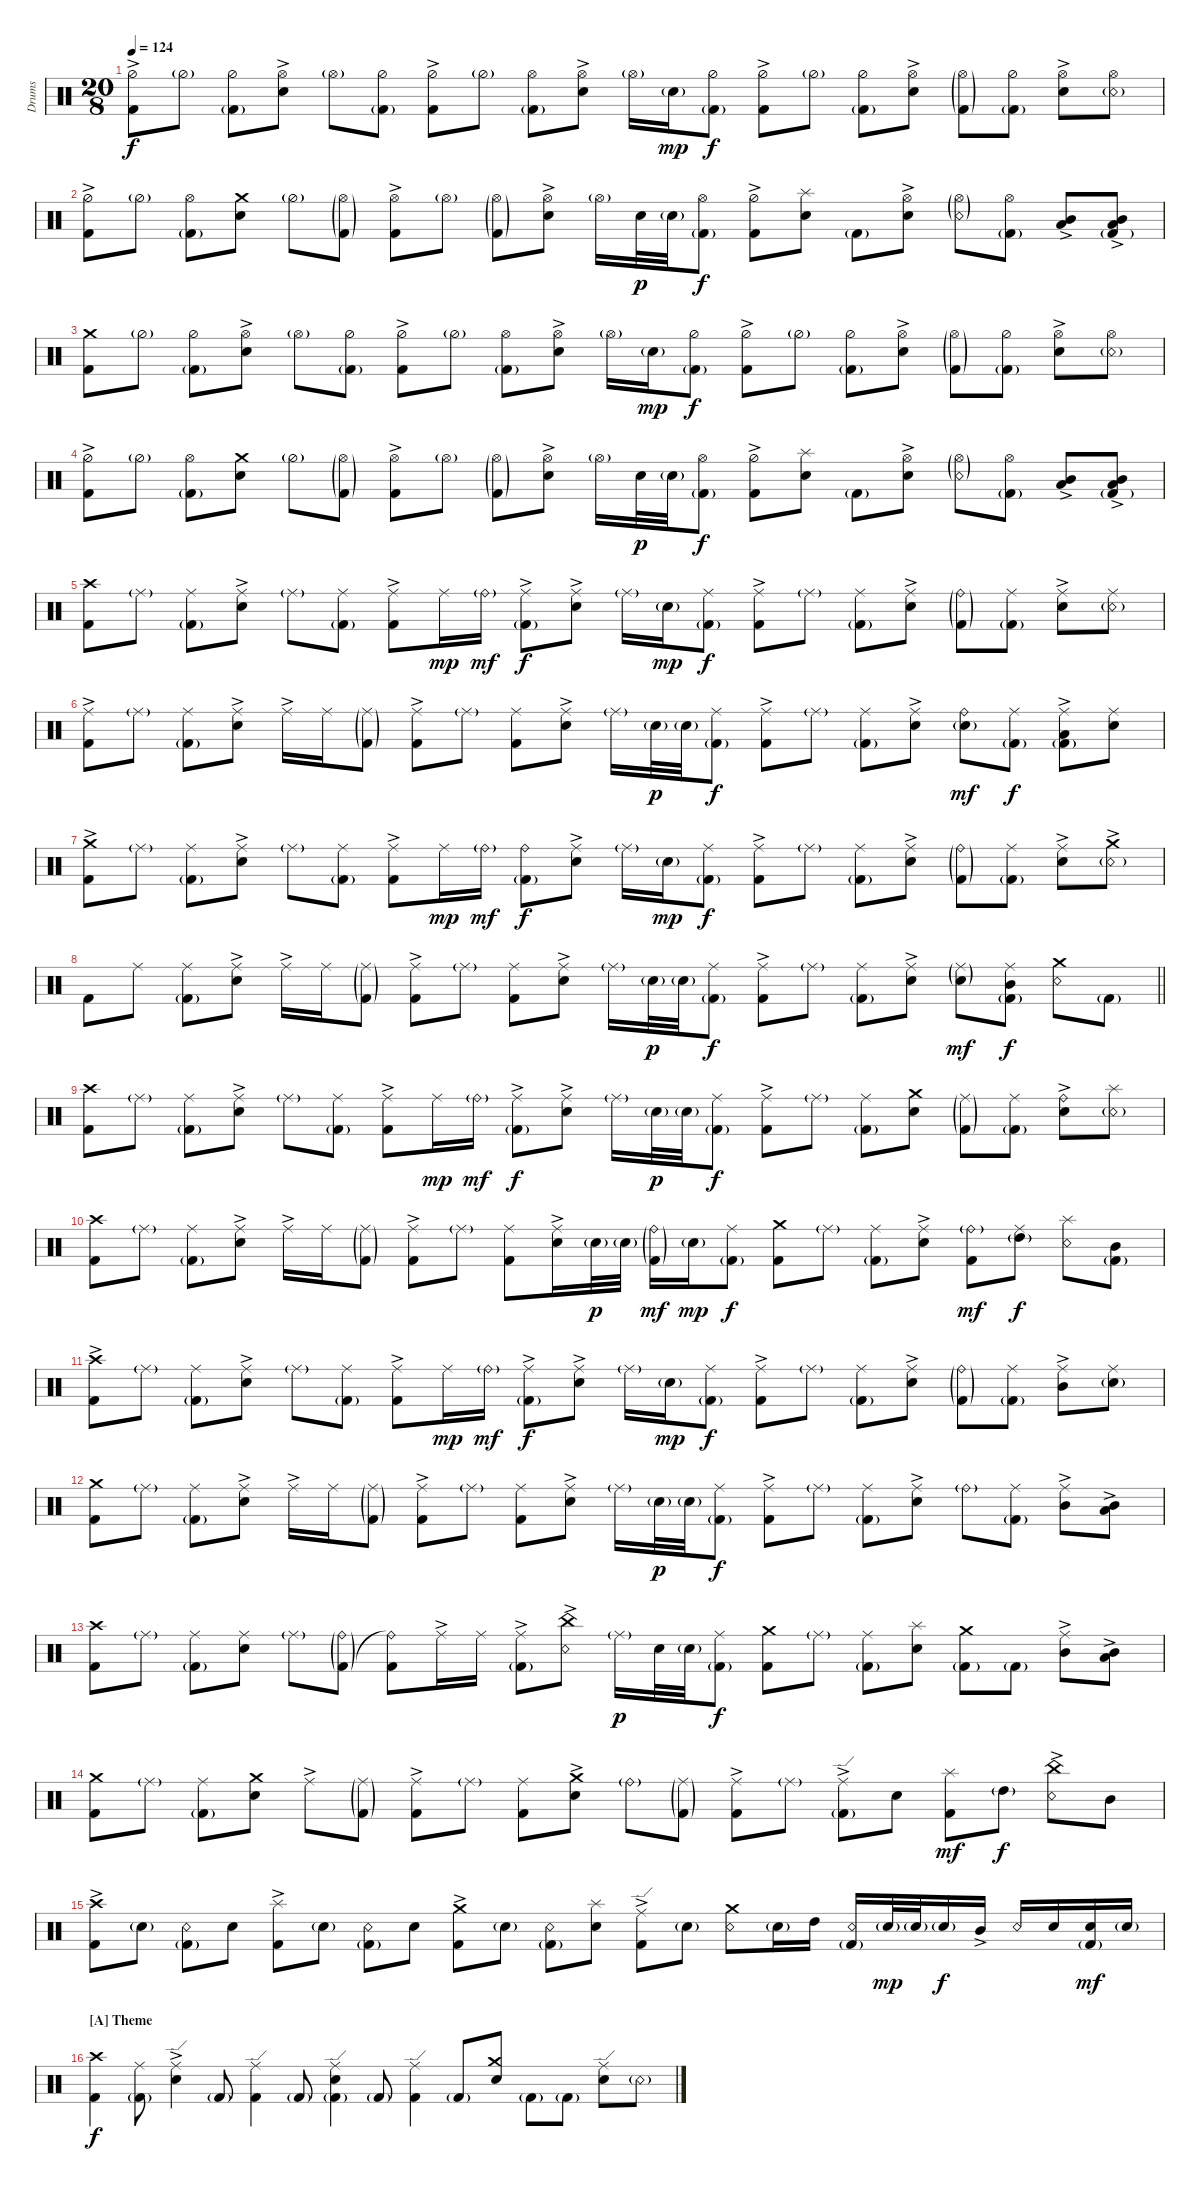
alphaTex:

\bracketExtendMode groupsimilarinstruments
\otherSystemsTrackNameOrientation horizontal
\track ("Drumkit" "Drums") {instrument percussion}
\staff {score}
\articulation defaults
\ts (20 8)
\tempo 124
\clef neutral
\ks c
("Kick (hit) 2" "Hi-Hat (half)"{ac}).8{dy f beam Down} "Hi-Hat (half)"{g}.8{beam Down} ("Kick (hit) 2"{g} "Hi-Hat (half)").8{beam Down} ("Snare (hit) 2" "Hi-Hat (open)"{ac}).8{beam Down} "Hi-Hat (open)"{g}.8{beam Down} ("Kick (hit) 2"{g} "Hi-Hat (half)").8{beam Down} ("Kick (hit) 2" "Hi-Hat (half)"{ac}).8{beam Down} "Hi-Hat (half)"{g}.8{beam Down} ("Kick (hit) 2"{g} "Hi-Hat (open)").8{beam Down} ("Snare (hit) 2" "Hi-Hat (open)"{ac}).8{beam Down} "Hi-Hat (open)"{g}.16{beam Down} "Snare (hit) 2"{g}.16{dy mp beam Down} ("Kick (hit) 2"{g} "Hi-Hat (half)").8{dy f beam Down} ("Kick (hit) 2" "Hi-Hat (half)"{ac}).8{beam Down} "Hi-Hat (half)"{g}.8{beam Down} ("Kick (hit) 2"{g} "Hi-Hat (half)").8{beam Down} ("Snare (hit) 2" "Hi-Hat (open)"{ac}).8{beam Down} ("Kick (hit) 2"{g} "Hi-Hat (open)"{g}).8{beam Down} ("Kick (hit) 2"{g} "Hi-Hat (half)").8{beam Down} ("Snare (hit) 2" "Hi-Hat (open)"{ac}).8{beam Down} ("Snare (rim shot)"{g} "Hi-Hat (open)").8{beam Down} |
("Kick (hit) 2" "Hi-Hat (half)"{ac}).8{beam Down} "Hi-Hat (half)"{g}.8{beam Down} ("Kick (hit) 2"{g} "Hi-Hat (open)").8{beam Down} ("Snare (hit) 2" "Crash medium (hit)").8{beam Down} "Hi-Hat (half)"{g}.8{beam Down} ("Kick (hit) 2"{g} "Hi-Hat (open)"{g}).8{beam Down} ("Kick (hit) 2" "Hi-Hat (open)"{ac}).8{beam Down} "Hi-Hat (open)"{g}.8{beam Down} ("Kick (hit) 2"{g} "Hi-Hat (open)"{g}).8{beam Down} ("Snare (hit) 2" "Hi-Hat (open)"{ac}).8{beam Down} "Hi-Hat (open)"{g}.16{beam Down} "Snare (hit) 2".32{dy p beam Down} "Snare (hit) 2"{g}.32{beam Down} ("Kick (hit) 2"{g} "Hi-Hat (open)").8{dy f beam Down} ("Kick (hit) 2" "Hi-Hat (half)"{ac}).8{beam Down} ("Snare (hit) 2" "Splash (hit)").8{beam Down} "Kick (hit) 2"{g}.8{beam Down} ("Snare (hit) 2" "Hi-Hat (open)"{ac}).8{beam Down} ("Hi-Hat (open)"{g} "Snare (rim shot)"{g}).8{beam Down} ("Kick (hit) 2"{g} "Hi-Hat (open)").8{beam Down} ("Mid Tom (hit)" "Low Tom (hit)"{ac}).8{beam Up} ("Kick (hit) 2"{g} "Mid Tom (hit)" "Low Tom (hit)"{ac}).8{beam Up} |
("Kick (hit) 2" "Crash medium (hit)").8{beam Down} "Hi-Hat (half)"{g}.8{beam Down} ("Kick (hit) 2"{g} "Hi-Hat (half)").8{beam Down} ("Snare (hit) 2" "Hi-Hat (open)"{ac}).8{beam Down} "Hi-Hat (open)"{g}.8{beam Down} ("Kick (hit) 2"{g} "Hi-Hat (half)").8{beam Down} ("Kick (hit) 2" "Hi-Hat (half)"{ac}).8{beam Down} "Hi-Hat (half)"{g}.8{beam Down} ("Kick (hit) 2"{g} "Hi-Hat (open)").8{beam Down} ("Snare (hit) 2" "Hi-Hat (open)"{ac}).8{beam Down} "Hi-Hat (open)"{g}.16{beam Down} "Snare (hit) 2"{g}.16{dy mp beam Down} ("Kick (hit) 2"{g} "Hi-Hat (half)").8{dy f beam Down} ("Kick (hit) 2" "Hi-Hat (half)"{ac}).8{beam Down} "Hi-Hat (half)"{g}.8{beam Down} ("Kick (hit) 2"{g} "Hi-Hat (half)").8{beam Down} ("Snare (hit) 2" "Hi-Hat (open)"{ac}).8{beam Down} ("Kick (hit) 2"{g} "Hi-Hat (open)"{g}).8{beam Down} ("Kick (hit) 2"{g} "Hi-Hat (half)").8{beam Down} ("Snare (hit) 2" "Hi-Hat (open)"{ac}).8{beam Down} ("Snare (rim shot)"{g} "Hi-Hat (open)").8{beam Down} |
("Kick (hit) 2" "Hi-Hat (half)"{ac}).8{beam Down} "Hi-Hat (half)"{g}.8{beam Down} ("Kick (hit) 2"{g} "Hi-Hat (open)").8{beam Down} ("Snare (hit) 2" "Crash medium (hit)").8{beam Down} "Hi-Hat (half)"{g}.8{beam Down} ("Kick (hit) 2"{g} "Hi-Hat (open)"{g}).8{beam Down} ("Kick (hit) 2" "Hi-Hat (open)"{ac}).8{beam Down} "Hi-Hat (open)"{g}.8{beam Down} ("Kick (hit) 2"{g} "Hi-Hat (open)"{g}).8{beam Down} ("Snare (hit) 2" "Hi-Hat (open)"{ac}).8{beam Down} "Hi-Hat (open)"{g}.16{beam Down} "Snare (hit) 2".32{dy p beam Down} "Snare (hit) 2"{g}.32{beam Down} ("Kick (hit) 2"{g} "Hi-Hat (open)").8{dy f beam Down} ("Kick (hit) 2" "Hi-Hat (half)"{ac}).8{beam Down} ("Snare (hit) 2" "Splash (hit)").8{beam Down} "Kick (hit) 2"{g}.8{beam Down} ("Snare (hit) 2" "Hi-Hat (open)"{ac}).8{beam Down} ("Hi-Hat (open)"{g} "Snare (rim shot)"{g}).8{beam Down} ("Kick (hit) 2"{g} "Hi-Hat (open)").8{beam Down} ("Mid Tom (hit)" "Low Tom (hit)"{ac}).8{beam Up} ("Kick (hit) 2"{g} "Mid Tom (hit)" "Low Tom (hit)"{ac}).8{beam Up} |
("Kick (hit) 2" "Crash high (hit)").8{beam Down} "Ride (middle)"{g}.8{beam Down} ("Ride (middle)" "Kick (hit) 2"{g}).8{beam Down} ("Ride (middle)"{ac} "Snare (hit) 2").8{beam Down} "Ride (middle)"{g}.8{beam Down} ("Ride (middle)" "Kick (hit) 2"{g}).8{beam Down} ("Ride (middle)"{ac} "Kick (hit) 2").8{beam Down} "Ride (middle)".16{dy mp beam Down} "Ride (bell)"{g}.16{dy mf beam Down} ("Ride (middle)"{ac} "Kick (hit) 2"{g}).8{dy f beam Down} ("Ride (middle)"{ac} "Snare (hit) 2").8{beam Down} "Ride (middle)"{g}.16{beam Down} "Snare (hit) 2"{g}.16{dy mp beam Down} ("Ride (middle)" "Kick (hit) 2"{g}).8{dy f beam Down} ("Kick (hit) 2" "Ride (middle)"{ac}).8{beam Down} "Ride (middle)"{g}.8{beam Down} ("Ride (middle)" "Kick (hit) 2"{g}).8{beam Down} ("Ride (middle)"{ac} "Snare (hit) 2").8{beam Down} ("Ride (bell)"{g} "Kick (hit) 2"{g}).8{beam Down} ("Ride (middle)" "Kick (hit) 2"{g}).8{beam Down} ("Ride (middle)"{ac} "Snare (hit) 2").8{beam Down} ("Ride (middle)" "Snare (rim shot)"{g}).8{beam Down} |
("Kick (hit) 2" "Ride (middle)"{ac}).8{beam Down} "Ride (middle)"{g}.8{beam Down} ("Ride (middle)" "Kick (hit) 2"{g}).8{beam Down} ("Ride (middle)"{ac} "Snare (hit) 2").8{beam Down} "Ride (middle)"{ac}.16{beam Down} "Ride (middle)".16{beam Down} ("Ride (middle)"{g} "Kick (hit) 2"{g}).8{beam Down} ("Ride (middle)"{ac} "Kick (hit) 2").8{beam Down} "Ride (middle)"{g}.8{beam Down} ("Ride (middle)" "Kick (hit) 2").8{beam Down} ("Ride (middle)"{ac} "Snare (hit) 2").8{beam Down} "Ride (middle)"{g}.16{beam Down} "Snare (hit) 2"{g}.32{dy p beam Down} "Snare (hit) 2"{g}.32{beam Down} ("Ride (middle)" "Kick (hit) 2"{g}).8{dy f beam Down} ("Kick (hit) 2" "Ride (middle)"{ac}).8{beam Down} "Ride (middle)"{g}.8{beam Down} ("Ride (middle)" "Kick (hit) 2"{g}).8{beam Down} ("Ride (middle)"{ac} "Snare (hit) 2").8{beam Down} ("Ride (bell)" "Snare (hit) 2"{g}).8{dy mf beam Down} ("Ride (middle)" "Kick (hit) 2"{g}).8{dy f beam Down} ("Low Tom (hit)"{ac} "Kick (hit) 2"{g} "Ride (middle)").8{beam Down} ("Snare (hit) 2" "Ride (middle)").8{beam Down} |
("Kick (hit) 2" "Crash medium (hit)"{ac}).8{beam Down} "Ride (middle)"{g}.8{beam Down} ("Ride (middle)" "Kick (hit) 2"{g}).8{beam Down} ("Ride (middle)"{ac} "Snare (hit) 2").8{beam Down} "Ride (middle)"{g}.8{beam Down} ("Ride (middle)" "Kick (hit) 2"{g}).8{beam Down} ("Ride (middle)"{ac} "Kick (hit) 2").8{beam Down} "Ride (middle)".16{dy mp beam Down} "Ride (bell)"{g}.16{dy mf beam Down} ("Ride (bell)" "Kick (hit) 2"{g}).8{dy f beam Down} ("Ride (middle)"{ac} "Snare (hit) 2").8{beam Down} "Ride (middle)"{g}.16{beam Down} "Snare (hit) 2"{g}.16{dy mp beam Down} ("Ride (middle)" "Kick (hit) 2"{g}).8{dy f beam Down} ("Kick (hit) 2" "Ride (middle)"{ac}).8{beam Down} "Ride (middle)"{g}.8{beam Down} ("Ride (middle)" "Kick (hit) 2"{g}).8{beam Down} ("Ride (middle)"{ac} "Snare (hit) 2").8{beam Down} ("Ride (bell)"{g} "Kick (hit) 2"{g}).8{beam Down} ("Ride (middle)" "Kick (hit) 2"{g}).8{beam Down} ("Ride (middle)"{ac} "Snare (hit) 2").8{beam Down} ("Snare (rim shot)"{g} "Crash medium (hit)"{ac}).8{beam Down} |
\barLineRight lightlight "Kick (hit) 2".8{beam Down} "Ride (middle)".8{beam Down}
("Ride (middle)" "Kick (hit) 2"{g}).8{beam Down} ("Ride (middle)"{ac} "Snare (hit) 2").8{beam Down} "Ride (middle)"{ac}.16{beam Down} "Ride (middle)".16{beam Down} ("Ride (middle)"{g} "Kick (hit) 2"{g}).8{beam Down} ("Ride (middle)"{ac} "Kick (hit) 2").8{beam Down} "Ride (middle)"{g}.8{beam Down} ("Ride (middle)" "Kick (hit) 2").8{beam Down} ("Ride (middle)"{ac} "Snare (hit) 2").8{beam Down} "Ride (middle)"{g}.16{beam Down} "Snare (hit) 2"{g}.32{dy p beam Down} "Snare (hit) 2"{g}.32{beam Down} ("Ride (middle)" "Kick (hit) 2"{g}).8{dy f beam Down} ("Kick (hit) 2" "Ride (middle)"{ac}).8{beam Down} "Ride (middle)"{g}.8{beam Down} ("Ride (middle)" "Kick (hit) 2"{g}).8{beam Down} ("Ride (middle)"{ac} "Snare (hit) 2").8{beam Down} ("Ride (middle)"{g} "Snare (hit) 2"{g}).8{dy mf beam Down} ("Ride (middle)" "Kick (hit) 2"{g} "Mid Tom (hit)").8{dy f beam Down} ("Snare (rim shot)" "Crash medium (hit)").8{beam Down} "Kick (hit) 2"{g}.8{beam Down} |
("Kick (hit) 2" "Crash high (hit)").8{beam Down} "Ride (middle)"{g}.8{beam Down} ("Ride (middle)" "Kick (hit) 2"{g}).8{beam Down} ("Ride (middle)"{ac} "Snare (hit) 2").8{beam Down} "Ride (middle)"{g}.8{beam Down} ("Ride (middle)" "Kick (hit) 2"{g}).8{beam Down} ("Ride (middle)"{ac} "Kick (hit) 2").8{beam Down} "Ride (middle)".16{dy mp beam Down} "Ride (bell)"{g}.16{dy mf beam Down} ("Ride (middle)"{ac} "Kick (hit) 2"{g}).8{dy f beam Down} ("Ride (middle)"{ac} "Snare (hit) 2").8{beam Down} "Ride (middle)"{g}.16{beam Down} "Snare (hit) 2"{g}.32{dy p beam Down} "Snare (hit) 2"{g}.32{beam Down} ("Ride (middle)" "Kick (hit) 2"{g}).8{dy f beam Down} ("Kick (hit) 2" "Ride (middle)"{ac}).8{beam Down} "Ride (middle)"{g}.8{beam Down} ("Ride (middle)" "Kick (hit) 2"{g}).8{beam Down} ("Snare (hit) 2" "Crash medium (hit)").8{beam Down} ("Ride (middle)"{g} "Kick (hit) 2"{g}).8{beam Down} ("Ride (middle)" "Kick (hit) 2"{g}).8{beam Down} ("Ride (bell)"{ac} "Snare (hit) 2").8{beam Down} ("Snare (rim shot)"{g} "Splash (hit)").8{beam Down} |
("Kick (hit) 2" "Crash high (hit)").8{beam Down} "Ride (middle)"{g}.8{beam Down} ("Ride (middle)" "Kick (hit) 2"{g}).8{beam Down} ("Ride (middle)"{ac} "Snare (hit) 2").8{beam Down} "Ride (middle)"{ac}.16{beam Down} "Ride (middle)".16{beam Down} ("Ride (middle)"{g} "Kick (hit) 2"{g}).8{beam Down} ("Ride (middle)"{ac} "Kick (hit) 2").8{beam Down} "Ride (middle)"{g}.8{beam Down} ("Ride (middle)" "Kick (hit) 2").8{beam Down} ("Ride (middle)"{ac} "Snare (hit) 2").16{beam Down} "Snare (hit) 2"{g}.32{dy p beam Down} "Snare (hit) 2"{g}.32{beam Down} ("Ride (bell)"{g} "Kick (hit) 2"{g}).16{dy mf beam Down} "Snare (hit) 2"{g}.16{dy mp beam Down} ("Ride (middle)" "Kick (hit) 2"{g}).8{dy f beam Down} ("Crash medium (hit)" "Kick (hit) 2").8{beam Down} "Ride (middle)"{g}.8{beam Down} ("Ride (middle)" "Kick (hit) 2"{g}).8{beam Down} ("Ride (middle)"{ac} "Snare (hit) 2").8{beam Down} ("Ride (bell)"{g} "Kick (hit) 2").8{dy mf beam Down} ("High Tom (hit)"{g} "Ride (middle)").8{dy f beam Down} ("Snare (rim shot)" "Splash (hit)").8{beam Down} ("Kick (hit) 2"{g} "Mid Tom (hit)").8{beam Down} |
("Kick (hit) 2" "Crash high (hit)"{ac}).8{beam Down} "Ride (middle)"{g}.8{beam Down} ("Ride (middle)" "Kick (hit) 2"{g}).8{beam Down} ("Ride (middle)"{ac} "Snare (hit) 2").8{beam Down} "Ride (middle)"{g}.8{beam Down} ("Ride (middle)" "Kick (hit) 2"{g}).8{beam Down} ("Ride (middle)"{ac} "Kick (hit) 2").8{beam Down} "Ride (middle)".16{dy mp beam Down} "Ride (bell)"{g}.16{dy mf beam Down} ("Ride (middle)"{ac} "Kick (hit) 2"{g}).8{dy f beam Down} ("Ride (middle)"{ac} "Snare (hit) 2").8{beam Down} "Ride (middle)"{g}.16{beam Down} "Snare (hit) 2"{g}.16{dy mp beam Down} ("Ride (middle)" "Kick (hit) 2"{g}).8{dy f beam Down} ("Kick (hit) 2" "Ride (middle)"{ac}).8{beam Down} "Ride (middle)"{g}.8{beam Down} ("Ride (middle)" "Kick (hit) 2"{g}).8{beam Down} ("Ride (middle)"{ac} "Snare (hit) 2").8{beam Down} ("Ride (bell)"{g} "Kick (hit) 2"{g}).8{beam Down} ("Ride (middle)" "Kick (hit) 2"{g}).8{beam Down} ("Ride (middle)"{ac} "Mid Tom (hit)").8{beam Down} ("Ride (middle)" "Snare (hit) 2"{g}).8{beam Down} |
("Kick (hit) 2" "Crash medium (hit)").8{beam Down} "Ride (middle)"{g}.8{beam Down} ("Ride (middle)" "Kick (hit) 2"{g}).8{beam Down} ("Ride (middle)"{ac} "Snare (hit) 2").8{beam Down} "Ride (middle)"{ac}.16{beam Down} "Ride (middle)".16{beam Down} ("Ride (middle)"{g} "Kick (hit) 2"{g}).8{beam Down} ("Ride (middle)"{ac} "Kick (hit) 2").8{beam Down} "Ride (middle)"{g}.8{beam Down} ("Ride (middle)" "Kick (hit) 2").8{beam Down} ("Ride (middle)"{ac} "Snare (hit) 2").8{beam Down} "Ride (middle)"{g}.16{beam Down} "Snare (hit) 2"{g}.32{dy p beam Down} "Snare (hit) 2"{g}.32{beam Down} ("Ride (middle)" "Kick (hit) 2"{g}).8{dy f beam Down} ("Kick (hit) 2" "Ride (middle)"{ac}).8{beam Down} "Ride (middle)"{g}.8{beam Down} ("Ride (middle)" "Kick (hit) 2"{g}).8{beam Down} ("Ride (middle)"{ac} "Snare (hit) 2").8{beam Down} "Ride (bell)"{g}.8{beam Down} ("Ride (middle)" "Kick (hit) 2"{g}).8{beam Down} ("Ride (middle)"{ac} "Mid Tom (hit)").8{beam Down} ("Mid Tom (hit)" "Low Tom (hit)"{ac}).8{beam Down} |
("Kick (hit) 2" "Crash high (hit)").8{beam Down} "Ride (middle)"{g}.8{beam Down} ("Ride (middle)" "Kick (hit) 2"{g}).8{beam Down} ("Snare (hit) 2" "Ride (middle)").8{beam Down} "Ride (middle)"{g}.8{beam Down} ("Ride (bell)"{g} "Kick (hit) 2"{g}).8{beam Down} ("Kick (hit) 2" "Ride (bell)"{t}).8{beam Down} "Ride (middle)"{ac}.16{beam Down} "Ride (middle)".16{beam Down} ("Ride (middle)"{ac} "Kick (hit) 2"{g}).8{beam Down} ("Snare (rim shot)" "China (hit)"{ac}).8{beam Down} "Ride (middle)"{g}.16{dy p beam Down} "Snare (hit) 2".32{beam Down} "Snare (hit) 2"{g}.32{beam Down} ("Ride (middle)" "Kick (hit) 2"{g}).8{dy f beam Down} ("Kick (hit) 2" "Crash medium (hit)").8{beam Down} "Ride (middle)"{g}.8{beam Down} ("Ride (middle)" "Kick (hit) 2"{g}).8{beam Down} ("Snare (hit) 2" "Splash (hit)").8{beam Down} ("Kick (hit) 2"{g} "Crash medium (hit)").8{beam Down} "Kick (hit) 2"{g}.8{beam Down} ("Ride (middle)"{ac} "Mid Tom (hit)").8{beam Down} ("Mid Tom (hit)" "Low Tom (hit)"{ac}).8{beam Down} |
("Kick (hit) 2" "Crash medium (hit)").8{beam Down} "Ride (middle)"{g}.8{beam Down} ("Ride (middle)" "Kick (hit) 2"{g}).8{beam Down} ("Snare (hit) 2" "Crash medium (hit)").8{beam Down} "Ride (middle)"{ac}.8{beam Down} ("Ride (middle)"{g} "Kick (hit) 2"{g}).8{beam Down} ("Ride (middle)"{ac} "Kick (hit) 2").8{beam Down} "Ride (middle)"{g}.8{beam Down} ("Ride (middle)" "Kick (hit) 2").8{beam Down} ("Snare (hit) 2" "Crash medium (hit)"{ac}).8{beam Down} "Ride (bell)"{g}.8{beam Down} ("Ride (middle)"{g} "Kick (hit) 2"{g}).8{beam Down} ("Ride (middle)"{ac} "Kick (hit) 2").8{beam Down} "Ride (middle)"{g}.8{beam Down} ("Ride (edge)"{ac} "Kick (hit) 2"{g}).8{beam Down} "Snare (hit) 2".8{beam Down} ("Kick (hit) 2" "Splash (hit)").8{dy mf beam Down} "High Tom (hit)"{g}.8{dy f beam Down} ("Snare (rim shot)" "China (hit)"{ac}).8{beam Down} "Mid Tom (hit)".8{beam Down} |
("Kick (hit) 2" "Crash high (hit)"{ac}).8{beam Down} "Snare (hit) 2"{g}.8{beam Down} ("Snare (rim shot)" "Kick (hit) 2"{g}).8{beam Down} "Snare (hit) 2".8{beam Down} ("Kick (hit) 2" "Splash (hit)"{ac}).8{beam Down} "Snare (hit) 2"{g}.8{beam Down} ("Snare (rim shot)" "Kick (hit) 2"{g}).8{beam Down} "Snare (hit) 2".8{beam Down} ("Kick (hit) 2" "Crash medium (hit)"{ac}).8{beam Down} "Snare (hit) 2"{g}.8{beam Down} ("Snare (rim shot)" "Kick (hit) 2"{g}).8{beam Down} ("Snare (hit) 2" "Splash (hit)").8{beam Down} ("Kick (hit) 2" "Ride (edge)"{ac}).8{beam Down} "Snare (hit) 2"{g}.8{beam Down} ("Snare (rim shot)" "Crash medium (hit)").8{beam Down} "Snare (hit) 2"{g}.16{beam Up} "High Tom (hit)".16{beam Up} ("Snare (rim shot)" "Kick (hit) 2"{g}).16{beam Up} "Snare (hit) 2"{g}.32{dy mp beam Up} "Snare (hit) 2"{g}.32{beam Up} "Snare (hit) 2"{g}.16{dy f beam Up} "Mid Tom (hit)"{ac}.16{beam Up} "Snare (rim shot)".16{beam Up} "Snare (hit) 2".16{beam Up} ("Snare (hit) 2" "Kick (hit) 2"{g}).16{dy mf beam Up} "Snare (hit) 2"{g}.16{beam Up} |
\section ("A" "Theme")
("Kick (hit) 2" "Crash high (hit)").4{dy f beam Down} ("Kick (hit) 2"{g} "Ride (middle)").8{beam Down} ("Snare (hit) 2" "Ride (edge)"{ac}).4{beam Down} "Kick (hit) 2"{g}.8{beam Up} ("Kick (hit) 2" "Ride (edge)").4{beam Down} "Kick (hit) 2"{g}.8{beam Up} ("Snare (hit) 2" "Ride (edge)" "Kick (hit) 2"{g}).4{beam Down} "Kick (hit) 2"{g}.8{beam Up} ("Kick (hit) 2" "Ride (edge)").4{beam Down} "Kick (hit) 2"{g}.8{beam Up} ("Snare (hit) 2" "Crash medium (hit)").8{beam Down} "Kick (hit) 2"{g}.8{beam Down} "Kick (hit) 2"{g}.8{beam Down} ("Snare (hit) 2" "Ride (edge)").8{beam Down} "Snare (rim shot)"{g}.8{beam Down}
